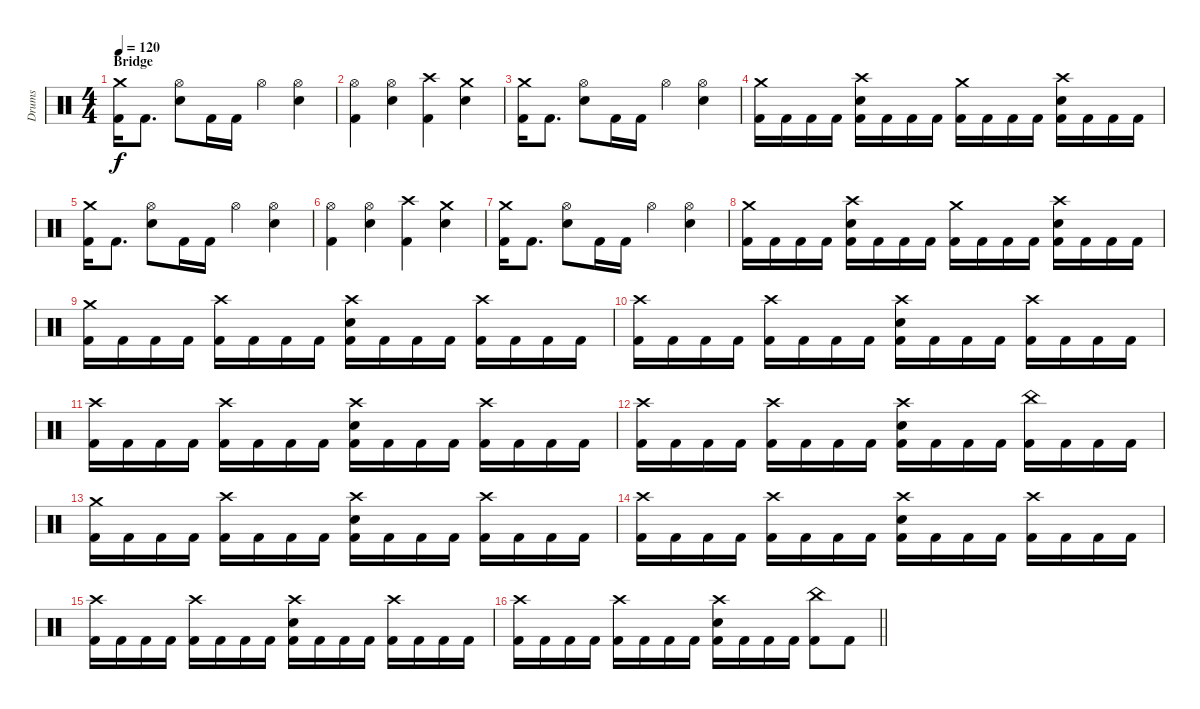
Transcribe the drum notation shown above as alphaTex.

\track ("Drums" "Drums") {instrument percussion}
\staff {score}
\articulation defaults
\ts (4 4)
\section ("" "Bridge")
\tempo 120
\clef neutral
\ks c
("Crash medium (hit)" "Kick (hit) 2").16{dy f} "Kick (hit) 2".8{d} ("Hi-Hat (open)" "Electric Snare (hit)").8 "Kick (hit) 2".16 "Kick (hit) 2".16 "Hi-Hat (open)".4 ("Hi-Hat (open)" "Electric Snare (hit)").4 |
("Hi-Hat (open)" "Kick (hit) 2").4 ("Hi-Hat (open)" "Electric Snare (hit)").4 ("Crash high (hit)" "Kick (hit) 2").4 ("Crash medium (hit)" "Electric Snare (hit)").4 |
("Crash medium (hit)" "Kick (hit) 2").16 "Kick (hit) 2".8{d} ("Hi-Hat (open)" "Electric Snare (hit)").8 "Kick (hit) 2".16 "Kick (hit) 2".16 "Hi-Hat (open)".4 ("Hi-Hat (open)" "Electric Snare (hit)").4 |
("Crash medium (hit)" "Kick (hit) 2").16 "Kick (hit) 2".16 "Kick (hit) 2".16 "Kick (hit) 2".16 ("Crash high (hit)" "Electric Snare (hit)" "Kick (hit) 2").16 "Kick (hit) 2".16 "Kick (hit) 2".16 "Kick (hit) 2".16 ("Crash medium (hit)" "Kick (hit) 2").16 "Kick (hit) 2".16 "Kick (hit) 2".16 "Kick (hit) 2".16 ("Crash high (hit)" "Electric Snare (hit)" "Kick (hit) 2").16 "Kick (hit) 2".16 "Kick (hit) 2".16 "Kick (hit) 2".16 |
("Crash medium (hit)" "Kick (hit) 2").16 "Kick (hit) 2".8{d} ("Hi-Hat (open)" "Electric Snare (hit)").8 "Kick (hit) 2".16 "Kick (hit) 2".16 "Hi-Hat (open)".4 ("Hi-Hat (open)" "Electric Snare (hit)").4 |
("Hi-Hat (open)" "Kick (hit) 2").4 ("Hi-Hat (open)" "Electric Snare (hit)").4 ("Crash high (hit)" "Kick (hit) 2").4 ("Crash medium (hit)" "Electric Snare (hit)").4 |
("Crash medium (hit)" "Kick (hit) 2").16 "Kick (hit) 2".8{d} ("Hi-Hat (open)" "Electric Snare (hit)").8 "Kick (hit) 2".16 "Kick (hit) 2".16 "Hi-Hat (open)".4 ("Hi-Hat (open)" "Electric Snare (hit)").4 |
("Crash medium (hit)" "Kick (hit) 2").16 "Kick (hit) 2".16 "Kick (hit) 2".16 "Kick (hit) 2".16 ("Crash high (hit)" "Electric Snare (hit)" "Kick (hit) 2").16 "Kick (hit) 2".16 "Kick (hit) 2".16 "Kick (hit) 2".16 ("Crash medium (hit)" "Kick (hit) 2").16 "Kick (hit) 2".16 "Kick (hit) 2".16 "Kick (hit) 2".16 ("Crash high (hit)" "Electric Snare (hit)" "Kick (hit) 2").16 "Kick (hit) 2".16 "Kick (hit) 2".16 "Kick (hit) 2".16 |
("Crash medium (hit)" "Kick (hit) 2").16 "Kick (hit) 2".16 "Kick (hit) 2".16 "Kick (hit) 2".16 ("Crash high (hit)" "Kick (hit) 2").16 "Kick (hit) 2".16 "Kick (hit) 2".16 "Kick (hit) 2".16 ("Crash high (hit)" "Electric Snare (hit)" "Kick (hit) 2").16 "Kick (hit) 2".16 "Kick (hit) 2".16 "Kick (hit) 2".16 ("Crash high (hit)" "Kick (hit) 2").16 "Kick (hit) 2".16 "Kick (hit) 2".16 "Kick (hit) 2".16 |
("Crash high (hit)" "Kick (hit) 2").16 "Kick (hit) 2".16 "Kick (hit) 2".16 "Kick (hit) 2".16 ("Crash high (hit)" "Kick (hit) 2").16 "Kick (hit) 2".16 "Kick (hit) 2".16 "Kick (hit) 2".16 ("Crash high (hit)" "Electric Snare (hit)" "Kick (hit) 2").16 "Kick (hit) 2".16 "Kick (hit) 2".16 "Kick (hit) 2".16 ("Crash high (hit)" "Kick (hit) 2").16 "Kick (hit) 2".16 "Kick (hit) 2".16 "Kick (hit) 2".16 |
("Crash high (hit)" "Kick (hit) 2").16 "Kick (hit) 2".16 "Kick (hit) 2".16 "Kick (hit) 2".16 ("Crash high (hit)" "Kick (hit) 2").16 "Kick (hit) 2".16 "Kick (hit) 2".16 "Kick (hit) 2".16 ("Crash high (hit)" "Electric Snare (hit)" "Kick (hit) 2").16 "Kick (hit) 2".16 "Kick (hit) 2".16 "Kick (hit) 2".16 ("Crash high (hit)" "Kick (hit) 2").16 "Kick (hit) 2".16 "Kick (hit) 2".16 "Kick (hit) 2".16 |
("Crash high (hit)" "Kick (hit) 2").16 "Kick (hit) 2".16 "Kick (hit) 2".16 "Kick (hit) 2".16 ("Crash high (hit)" "Kick (hit) 2").16 "Kick (hit) 2".16 "Kick (hit) 2".16 "Kick (hit) 2".16 ("Crash high (hit)" "Electric Snare (hit)" "Kick (hit) 2").16 "Kick (hit) 2".16 "Kick (hit) 2".16 "Kick (hit) 2".16 ("China (hit)" "Kick (hit) 2").16 "Kick (hit) 2".16 "Kick (hit) 2".16 "Kick (hit) 2".16 |
("Crash medium (hit)" "Kick (hit) 2").16 "Kick (hit) 2".16 "Kick (hit) 2".16 "Kick (hit) 2".16 ("Crash high (hit)" "Kick (hit) 2").16 "Kick (hit) 2".16 "Kick (hit) 2".16 "Kick (hit) 2".16 ("Crash high (hit)" "Electric Snare (hit)" "Kick (hit) 2").16 "Kick (hit) 2".16 "Kick (hit) 2".16 "Kick (hit) 2".16 ("Crash high (hit)" "Kick (hit) 2").16 "Kick (hit) 2".16 "Kick (hit) 2".16 "Kick (hit) 2".16 |
("Crash high (hit)" "Kick (hit) 2").16 "Kick (hit) 2".16 "Kick (hit) 2".16 "Kick (hit) 2".16 ("Crash high (hit)" "Kick (hit) 2").16 "Kick (hit) 2".16 "Kick (hit) 2".16 "Kick (hit) 2".16 ("Crash high (hit)" "Electric Snare (hit)" "Kick (hit) 2").16 "Kick (hit) 2".16 "Kick (hit) 2".16 "Kick (hit) 2".16 ("Crash high (hit)" "Kick (hit) 2").16 "Kick (hit) 2".16 "Kick (hit) 2".16 "Kick (hit) 2".16 |
("Crash high (hit)" "Kick (hit) 2").16 "Kick (hit) 2".16 "Kick (hit) 2".16 "Kick (hit) 2".16 ("Crash high (hit)" "Kick (hit) 2").16 "Kick (hit) 2".16 "Kick (hit) 2".16 "Kick (hit) 2".16 ("Crash high (hit)" "Electric Snare (hit)" "Kick (hit) 2").16 "Kick (hit) 2".16 "Kick (hit) 2".16 "Kick (hit) 2".16 ("Crash high (hit)" "Kick (hit) 2").16 "Kick (hit) 2".16 "Kick (hit) 2".16 "Kick (hit) 2".16 |
\barLineRight lightlight
("Crash high (hit)" "Kick (hit) 2").16 "Kick (hit) 2".16 "Kick (hit) 2".16 "Kick (hit) 2".16 ("Crash high (hit)" "Kick (hit) 2").16 "Kick (hit) 2".16 "Kick (hit) 2".16 "Kick (hit) 2".16 ("Crash high (hit)" "Electric Snare (hit)" "Kick (hit) 2").16 "Kick (hit) 2".16 "Kick (hit) 2".16 "Kick (hit) 2".16 ("China (hit)" "Kick (hit) 2").8 "Kick (hit) 2".8
